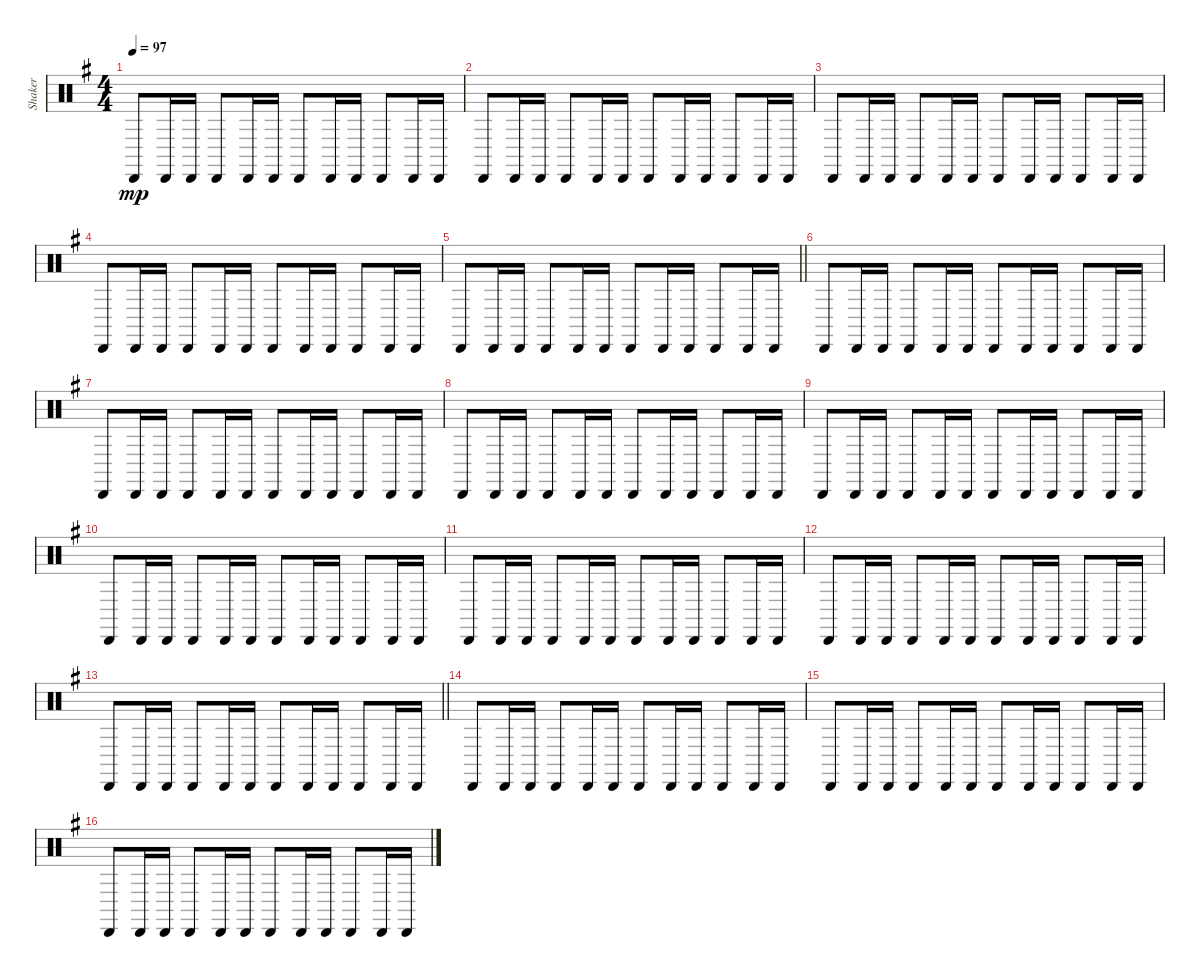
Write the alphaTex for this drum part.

\track ("Shaker" "Shaker") {instrument percussion}
\staff {score}
\articulation defaults
\ts (4 4)
\tempo 97
\clef neutral
\ks g "Cabasa (hit)".8{dy mp} "Cabasa (hit)".16 "Cabasa (hit)".16 "Cabasa (hit)".8 "Cabasa (hit)".16 "Cabasa (hit)".16 "Cabasa (hit)".8 "Cabasa (hit)".16 "Cabasa (hit)".16 "Cabasa (hit)".8 "Cabasa (hit)".16 "Cabasa (hit)".16
|
"Cabasa (hit)".8 "Cabasa (hit)".16 "Cabasa (hit)".16 "Cabasa (hit)".8 "Cabasa (hit)".16 "Cabasa (hit)".16 "Cabasa (hit)".8 "Cabasa (hit)".16 "Cabasa (hit)".16 "Cabasa (hit)".8 "Cabasa (hit)".16 "Cabasa (hit)".16 |
"Cabasa (hit)".8 "Cabasa (hit)".16 "Cabasa (hit)".16 "Cabasa (hit)".8 "Cabasa (hit)".16 "Cabasa (hit)".16 "Cabasa (hit)".8 "Cabasa (hit)".16 "Cabasa (hit)".16 "Cabasa (hit)".8 "Cabasa (hit)".16 "Cabasa (hit)".16 |
"Cabasa (hit)".8 "Cabasa (hit)".16 "Cabasa (hit)".16 "Cabasa (hit)".8 "Cabasa (hit)".16 "Cabasa (hit)".16 "Cabasa (hit)".8 "Cabasa (hit)".16 "Cabasa (hit)".16 "Cabasa (hit)".8 "Cabasa (hit)".16 "Cabasa (hit)".16 |
\barLineRight lightlight "Cabasa (hit)".8 "Cabasa (hit)".16 "Cabasa (hit)".16 "Cabasa (hit)".8 "Cabasa (hit)".16 "Cabasa (hit)".16 "Cabasa (hit)".8 "Cabasa (hit)".16 "Cabasa (hit)".16 "Cabasa (hit)".8 "Cabasa (hit)".16 "Cabasa (hit)".16
|
"Cabasa (hit)".8 "Cabasa (hit)".16 "Cabasa (hit)".16 "Cabasa (hit)".8 "Cabasa (hit)".16 "Cabasa (hit)".16 "Cabasa (hit)".8 "Cabasa (hit)".16 "Cabasa (hit)".16 "Cabasa (hit)".8 "Cabasa (hit)".16 "Cabasa (hit)".16 |
"Cabasa (hit)".8 "Cabasa (hit)".16 "Cabasa (hit)".16 "Cabasa (hit)".8 "Cabasa (hit)".16 "Cabasa (hit)".16 "Cabasa (hit)".8 "Cabasa (hit)".16 "Cabasa (hit)".16 "Cabasa (hit)".8 "Cabasa (hit)".16 "Cabasa (hit)".16 |
"Cabasa (hit)".8 "Cabasa (hit)".16 "Cabasa (hit)".16 "Cabasa (hit)".8 "Cabasa (hit)".16 "Cabasa (hit)".16 "Cabasa (hit)".8 "Cabasa (hit)".16 "Cabasa (hit)".16 "Cabasa (hit)".8 "Cabasa (hit)".16 "Cabasa (hit)".16 |
"Cabasa (hit)".8 "Cabasa (hit)".16 "Cabasa (hit)".16 "Cabasa (hit)".8 "Cabasa (hit)".16 "Cabasa (hit)".16 "Cabasa (hit)".8 "Cabasa (hit)".16 "Cabasa (hit)".16 "Cabasa (hit)".8 "Cabasa (hit)".16 "Cabasa (hit)".16 |
"Cabasa (hit)".8 "Cabasa (hit)".16 "Cabasa (hit)".16 "Cabasa (hit)".8 "Cabasa (hit)".16 "Cabasa (hit)".16 "Cabasa (hit)".8 "Cabasa (hit)".16 "Cabasa (hit)".16 "Cabasa (hit)".8 "Cabasa (hit)".16 "Cabasa (hit)".16 |
"Cabasa (hit)".8 "Cabasa (hit)".16 "Cabasa (hit)".16 "Cabasa (hit)".8 "Cabasa (hit)".16 "Cabasa (hit)".16 "Cabasa (hit)".8 "Cabasa (hit)".16 "Cabasa (hit)".16 "Cabasa (hit)".8 "Cabasa (hit)".16 "Cabasa (hit)".16 |
"Cabasa (hit)".8 "Cabasa (hit)".16 "Cabasa (hit)".16 "Cabasa (hit)".8 "Cabasa (hit)".16 "Cabasa (hit)".16 "Cabasa (hit)".8 "Cabasa (hit)".16 "Cabasa (hit)".16 "Cabasa (hit)".8 "Cabasa (hit)".16 "Cabasa (hit)".16 |
\barLineRight lightlight "Cabasa (hit)".8 "Cabasa (hit)".16 "Cabasa (hit)".16 "Cabasa (hit)".8 "Cabasa (hit)".16 "Cabasa (hit)".16 "Cabasa (hit)".8 "Cabasa (hit)".16 "Cabasa (hit)".16 "Cabasa (hit)".8 "Cabasa (hit)".16 "Cabasa (hit)".16
|
"Cabasa (hit)".8 "Cabasa (hit)".16 "Cabasa (hit)".16 "Cabasa (hit)".8 "Cabasa (hit)".16 "Cabasa (hit)".16 "Cabasa (hit)".8 "Cabasa (hit)".16 "Cabasa (hit)".16 "Cabasa (hit)".8 "Cabasa (hit)".16 "Cabasa (hit)".16 |
"Cabasa (hit)".8 "Cabasa (hit)".16 "Cabasa (hit)".16 "Cabasa (hit)".8 "Cabasa (hit)".16 "Cabasa (hit)".16 "Cabasa (hit)".8 "Cabasa (hit)".16 "Cabasa (hit)".16 "Cabasa (hit)".8 "Cabasa (hit)".16 "Cabasa (hit)".16 |
"Cabasa (hit)".8 "Cabasa (hit)".16 "Cabasa (hit)".16 "Cabasa (hit)".8 "Cabasa (hit)".16 "Cabasa (hit)".16 "Cabasa (hit)".8 "Cabasa (hit)".16 "Cabasa (hit)".16 "Cabasa (hit)".8 "Cabasa (hit)".16 "Cabasa (hit)".16
